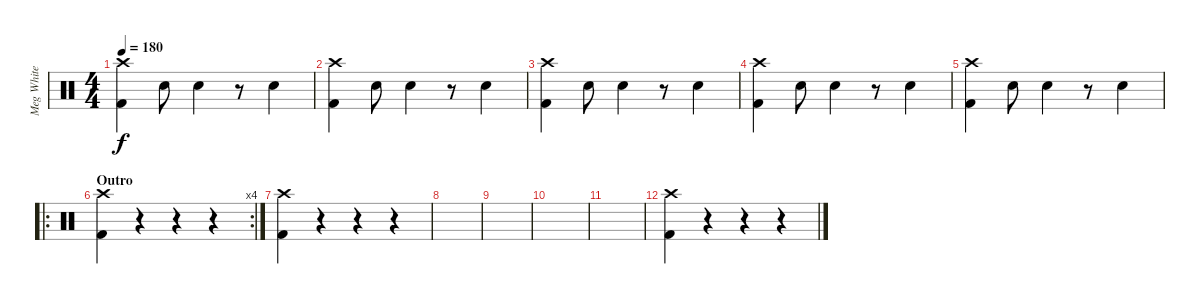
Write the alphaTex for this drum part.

\track ("Meg White" "Meg White") {instrument percussion}
\staff {score}
\articulation defaults
\ts (4 4)
\tempo 180
\clef neutral
\ks c
("Kick (hit) 2" "Crash high (hit)").4{dy f} "Snare (hit) 2".8 "Snare (hit) 2".4 r.8 "Snare (hit) 2".4 |
("Kick (hit) 2" "Crash high (hit)").4 "Snare (hit) 2".8 "Snare (hit) 2".4 r.8 "Snare (hit) 2".4 |
("Kick (hit) 2" "Crash high (hit)").4 "Snare (hit) 2".8 "Snare (hit) 2".4 r.8 "Snare (hit) 2".4 |
("Kick (hit) 2" "Crash high (hit)").4 "Snare (hit) 2".8 "Snare (hit) 2".4 r.8 "Snare (hit) 2".4 |
("Kick (hit) 2" "Crash high (hit)").4 "Snare (hit) 2".8 "Snare (hit) 2".4 r.8 "Snare (hit) 2".4 |
\ro
\rc 4
\section ("" "Outro")
("Kick (hit) 2" "Crash high (hit)").4 r.4 r.4 r.4 |
("Kick (hit) 2" "Crash high (hit)").4 r.4 r.4 r.4 |
|
|
|
|
("Kick (hit) 2" "Crash high (hit)").4 r.4 r.4 r.4
